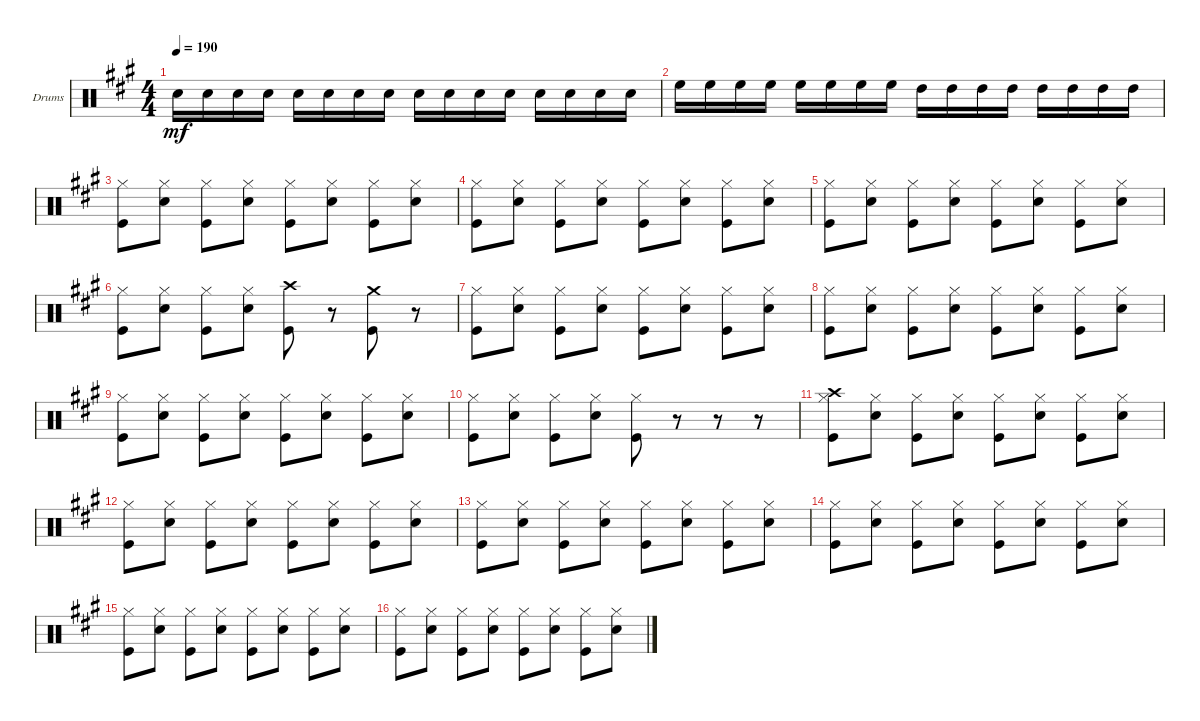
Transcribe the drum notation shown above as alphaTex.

\defaultSystemsLayout 4
\bracketExtendMode groupsimilarinstruments
\firstSystemTrackNameOrientation horizontal
\otherSystemsTrackNameOrientation horizontal
\track ("Drumkit" "Drums") {instrument percussion}
\staff {score}
\articulation defaults
\ts (4 4)
\tempo 190
\clef neutral
\ks f#minor "Snare (hit) 2".16{dy mf} "Snare (hit) 2".16 "Snare (hit) 2".16 "Snare (hit) 2".16 "Snare (hit) 2".16 "Snare (hit) 2".16 "Snare (hit) 2".16 "Snare (hit) 2".16 "Snare (hit) 2".16 "Snare (hit) 2".16 "Snare (hit) 2".16 "Snare (hit) 2".16 "Snare (hit) 2".16 "Snare (hit) 2".16 "Snare (hit) 2".16 "Snare (hit) 2".16
|
"High Floor Tom (hit)".16 "High Floor Tom (hit)".16 "High Floor Tom (hit)".16 "High Floor Tom (hit)".16 "High Floor Tom (hit)".16 "High Floor Tom (hit)".16 "High Floor Tom (hit)".16 "High Floor Tom (hit)".16 "High Tom (hit)".16 "High Tom (hit)".16 "High Tom (hit)".16 "High Tom (hit)".16 "High Tom (hit)".16 "High Tom (hit)".16 "High Tom (hit)".16 "High Tom (hit)".16 |
("Kick (hit)" "Hi-Hat (closed)").8 ("Snare (hit) 2" "Hi-Hat (closed)").8 ("Kick (hit)" "Hi-Hat (closed)").8 ("Snare (hit) 2" "Hi-Hat (closed)").8 ("Kick (hit)" "Hi-Hat (closed)").8 ("Snare (hit) 2" "Hi-Hat (closed)").8 ("Kick (hit)" "Hi-Hat (closed)").8 ("Snare (hit) 2" "Hi-Hat (closed)").8 |
("Kick (hit)" "Hi-Hat (closed)").8 ("Snare (hit) 2" "Hi-Hat (closed)").8 ("Kick (hit)" "Hi-Hat (closed)").8 ("Snare (hit) 2" "Hi-Hat (closed)").8 ("Kick (hit)" "Hi-Hat (closed)").8 ("Snare (hit) 2" "Hi-Hat (closed)").8 ("Kick (hit)" "Hi-Hat (closed)").8 ("Snare (hit) 2" "Hi-Hat (closed)").8 |
("Kick (hit)" "Hi-Hat (closed)").8 ("Snare (hit) 2" "Hi-Hat (closed)").8 ("Kick (hit)" "Hi-Hat (closed)").8 ("Snare (hit) 2" "Hi-Hat (closed)").8 ("Kick (hit)" "Hi-Hat (closed)").8 ("Snare (hit) 2" "Hi-Hat (closed)").8 ("Kick (hit)" "Hi-Hat (closed)").8 ("Snare (hit) 2" "Hi-Hat (closed)").8 |
("Kick (hit)" "Hi-Hat (closed)").8 ("Snare (hit) 2" "Hi-Hat (closed)").8 ("Kick (hit)" "Hi-Hat (closed)").8 ("Snare (hit) 2" "Hi-Hat (closed)").8 ("Kick (hit)" "Crash high (hit)").8 r.8 ("Kick (hit)" "Crash medium (hit)").8 r.8 |
("Kick (hit)" "Hi-Hat (closed)").8 ("Snare (hit) 2" "Hi-Hat (closed)").8 ("Kick (hit)" "Hi-Hat (closed)").8 ("Snare (hit) 2" "Hi-Hat (closed)").8 ("Kick (hit)" "Hi-Hat (closed)").8 ("Snare (hit) 2" "Hi-Hat (closed)").8 ("Kick (hit)" "Hi-Hat (closed)").8 ("Snare (hit) 2" "Hi-Hat (closed)").8 |
("Kick (hit)" "Hi-Hat (closed)").8 ("Snare (hit) 2" "Hi-Hat (closed)").8 ("Kick (hit)" "Hi-Hat (closed)").8 ("Snare (hit) 2" "Hi-Hat (closed)").8 ("Kick (hit)" "Hi-Hat (closed)").8 ("Snare (hit) 2" "Hi-Hat (closed)").8 ("Kick (hit)" "Hi-Hat (closed)").8 ("Snare (hit) 2" "Hi-Hat (closed)").8 |
("Kick (hit)" "Hi-Hat (closed)").8 ("Snare (hit) 2" "Hi-Hat (closed)").8 ("Kick (hit)" "Hi-Hat (closed)").8 ("Snare (hit) 2" "Hi-Hat (closed)").8 ("Kick (hit)" "Hi-Hat (closed)").8 ("Snare (hit) 2" "Hi-Hat (closed)").8 ("Kick (hit)" "Hi-Hat (closed)").8 ("Snare (hit) 2" "Hi-Hat (closed)").8 |
("Kick (hit)" "Hi-Hat (closed)").8 ("Snare (hit) 2" "Hi-Hat (closed)").8 ("Kick (hit)" "Hi-Hat (closed)").8 ("Snare (hit) 2" "Hi-Hat (closed)").8 ("Kick (hit)" "Hi-Hat (closed)").8 r.8 r.8 r.8 |
("Kick (hit)" "Hi-Hat (closed)" "Crash high (hit)").8 ("Snare (hit) 2" "Hi-Hat (closed)").8 ("Kick (hit)" "Hi-Hat (closed)").8 ("Snare (hit) 2" "Hi-Hat (closed)").8 ("Kick (hit)" "Hi-Hat (closed)").8 ("Snare (hit) 2" "Hi-Hat (closed)").8 ("Kick (hit)" "Hi-Hat (closed)").8 ("Snare (hit) 2" "Hi-Hat (closed)").8 |
("Kick (hit)" "Hi-Hat (closed)").8 ("Snare (hit) 2" "Hi-Hat (closed)").8 ("Kick (hit)" "Hi-Hat (closed)").8 ("Snare (hit) 2" "Hi-Hat (closed)").8 ("Kick (hit)" "Hi-Hat (closed)").8 ("Snare (hit) 2" "Hi-Hat (closed)").8 ("Kick (hit)" "Hi-Hat (closed)").8 ("Snare (hit) 2" "Hi-Hat (closed)").8 |
("Kick (hit)" "Hi-Hat (closed)").8 ("Snare (hit) 2" "Hi-Hat (closed)").8 ("Kick (hit)" "Hi-Hat (closed)").8 ("Snare (hit) 2" "Hi-Hat (closed)").8 ("Kick (hit)" "Hi-Hat (closed)").8 ("Snare (hit) 2" "Hi-Hat (closed)").8 ("Kick (hit)" "Hi-Hat (closed)").8 ("Snare (hit) 2" "Hi-Hat (closed)").8 |
("Kick (hit)" "Hi-Hat (closed)").8 ("Snare (hit) 2" "Hi-Hat (closed)").8 ("Kick (hit)" "Hi-Hat (closed)").8 ("Snare (hit) 2" "Hi-Hat (closed)").8 ("Kick (hit)" "Hi-Hat (closed)").8 ("Snare (hit) 2" "Hi-Hat (closed)").8 ("Kick (hit)" "Hi-Hat (closed)").8 ("Snare (hit) 2" "Hi-Hat (closed)").8 |
("Kick (hit)" "Hi-Hat (closed)").8 ("Snare (hit) 2" "Hi-Hat (closed)").8 ("Kick (hit)" "Hi-Hat (closed)").8 ("Snare (hit) 2" "Hi-Hat (closed)").8 ("Kick (hit)" "Hi-Hat (closed)").8 ("Snare (hit) 2" "Hi-Hat (closed)").8 ("Kick (hit)" "Hi-Hat (closed)").8 ("Snare (hit) 2" "Hi-Hat (closed)").8 |
("Kick (hit)" "Hi-Hat (closed)").8 ("Snare (hit) 2" "Hi-Hat (closed)").8 ("Kick (hit)" "Hi-Hat (closed)").8 ("Snare (hit) 2" "Hi-Hat (closed)").8 ("Kick (hit)" "Hi-Hat (closed)").8 ("Snare (hit) 2" "Hi-Hat (closed)").8 ("Kick (hit)" "Hi-Hat (closed)").8 ("Snare (hit) 2" "Hi-Hat (closed)").8
